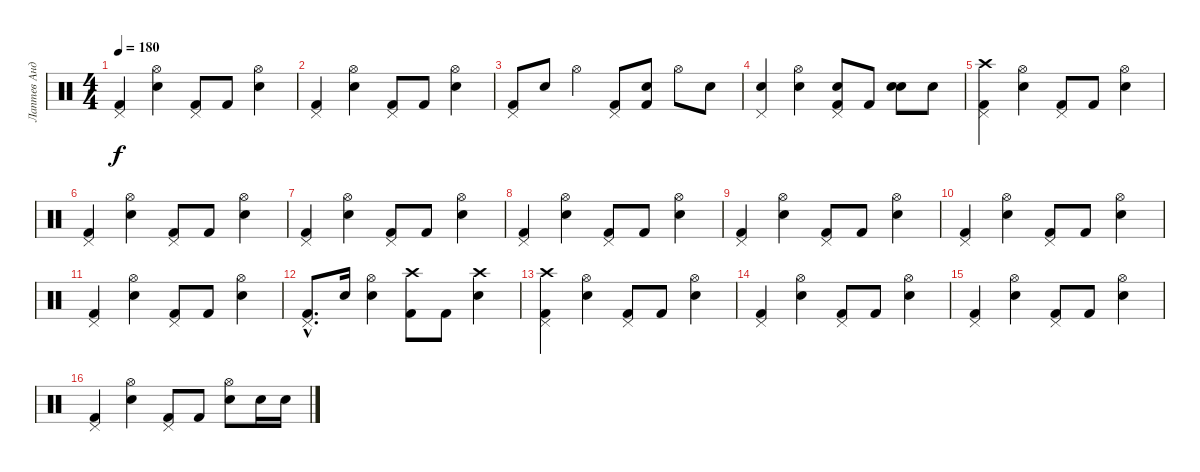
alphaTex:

\track ("Лаптев Андрей" "Лаптев Анд") {instrument percussion}
\staff {score}
\articulation defaults
\ts (4 4)
\tempo 180
\clef neutral
\ks c
("Kick (hit) 2" "Pedal Hi-Hat (hit)").4{dy f} ("Snare (hit) 2" "Hi-Hat (open)").4 ("Kick (hit) 2" "Pedal Hi-Hat (hit)").8 "Kick (hit) 2".8 ("Snare (hit) 2" "Hi-Hat (open)").4 |
("Kick (hit) 2" "Pedal Hi-Hat (hit)").4 ("Snare (hit) 2" "Hi-Hat (open)").4 ("Kick (hit) 2" "Pedal Hi-Hat (hit)").8 "Kick (hit) 2".8 ("Snare (hit) 2" "Hi-Hat (open)").4 |
("Kick (hit) 2" "Pedal Hi-Hat (hit)").8 "Snare (hit) 2".8 "Hi-Hat (open)".4 ("Kick (hit) 2" "Pedal Hi-Hat (hit)").8 ("Snare (hit) 2" "Kick (hit) 2").8 "Hi-Hat (open)".8 "Snare (hit) 2".8 |
("Snare (hit) 2" "Pedal Hi-Hat (hit)").4 ("Snare (hit) 2" "Hi-Hat (open)").4 ("Snare (hit) 2" "Kick (hit) 2" "Pedal Hi-Hat (hit)").8 "Kick (hit) 2".8 ("Snare (hit) 2" "Electric Snare (hit)").8 "Snare (hit) 2".8 |
("Kick (hit) 2" "Crash high (hit)" "Pedal Hi-Hat (hit)").4 ("Snare (hit) 2" "Hi-Hat (open)").4 ("Kick (hit) 2" "Pedal Hi-Hat (hit)").8 "Kick (hit) 2".8 ("Snare (hit) 2" "Hi-Hat (open)").4 |
("Kick (hit) 2" "Pedal Hi-Hat (hit)").4 ("Snare (hit) 2" "Hi-Hat (open)").4 ("Kick (hit) 2" "Pedal Hi-Hat (hit)").8 "Kick (hit) 2".8 ("Snare (hit) 2" "Hi-Hat (open)").4 |
("Kick (hit) 2" "Pedal Hi-Hat (hit)").4 ("Snare (hit) 2" "Hi-Hat (open)").4 ("Kick (hit) 2" "Pedal Hi-Hat (hit)").8 "Kick (hit) 2".8 ("Snare (hit) 2" "Hi-Hat (open)").4 |
("Kick (hit) 2" "Pedal Hi-Hat (hit)").4 ("Snare (hit) 2" "Hi-Hat (open)").4 ("Kick (hit) 2" "Pedal Hi-Hat (hit)").8 "Kick (hit) 2".8 ("Snare (hit) 2" "Hi-Hat (open)").4 |
("Kick (hit) 2" "Pedal Hi-Hat (hit)").4 ("Snare (hit) 2" "Hi-Hat (open)").4 ("Kick (hit) 2" "Pedal Hi-Hat (hit)").8 "Kick (hit) 2".8 ("Snare (hit) 2" "Hi-Hat (open)").4 |
("Kick (hit) 2" "Pedal Hi-Hat (hit)").4 ("Snare (hit) 2" "Hi-Hat (open)").4 ("Kick (hit) 2" "Pedal Hi-Hat (hit)").8 "Kick (hit) 2".8 ("Snare (hit) 2" "Hi-Hat (open)").4 |
("Kick (hit) 2" "Pedal Hi-Hat (hit)").4 ("Snare (hit) 2" "Hi-Hat (open)").4 ("Kick (hit) 2" "Pedal Hi-Hat (hit)").8 "Kick (hit) 2".8 ("Snare (hit) 2" "Hi-Hat (open)").4 |
("Kick (hit) 2"{hac} "Pedal Hi-Hat (hit)"{hac}).8{d} "Snare (hit) 2".16 ("Snare (hit) 2" "Hi-Hat (open)").4 ("Kick (hit) 2" "Crash high (hit)").8 "Kick (hit) 2".8 ("Snare (hit) 2" "Crash high (hit)").4 |
("Kick (hit) 2" "Crash high (hit)" "Pedal Hi-Hat (hit)").4 ("Snare (hit) 2" "Hi-Hat (open)").4 ("Kick (hit) 2" "Pedal Hi-Hat (hit)").8 "Kick (hit) 2".8 ("Snare (hit) 2" "Hi-Hat (open)").4 |
("Kick (hit) 2" "Pedal Hi-Hat (hit)").4 ("Snare (hit) 2" "Hi-Hat (open)").4 ("Kick (hit) 2" "Pedal Hi-Hat (hit)").8 "Kick (hit) 2".8 ("Snare (hit) 2" "Hi-Hat (open)").4 |
("Kick (hit) 2" "Pedal Hi-Hat (hit)").4 ("Snare (hit) 2" "Hi-Hat (open)").4 ("Kick (hit) 2" "Pedal Hi-Hat (hit)").8 "Kick (hit) 2".8 ("Snare (hit) 2" "Hi-Hat (open)").4 |
("Kick (hit) 2" "Pedal Hi-Hat (hit)").4 ("Snare (hit) 2" "Hi-Hat (open)").4 ("Kick (hit) 2" "Pedal Hi-Hat (hit)").8 "Kick (hit) 2".8 ("Snare (hit) 2" "Hi-Hat (open)").8 "Snare (hit) 2".16 "Snare (hit) 2".16
